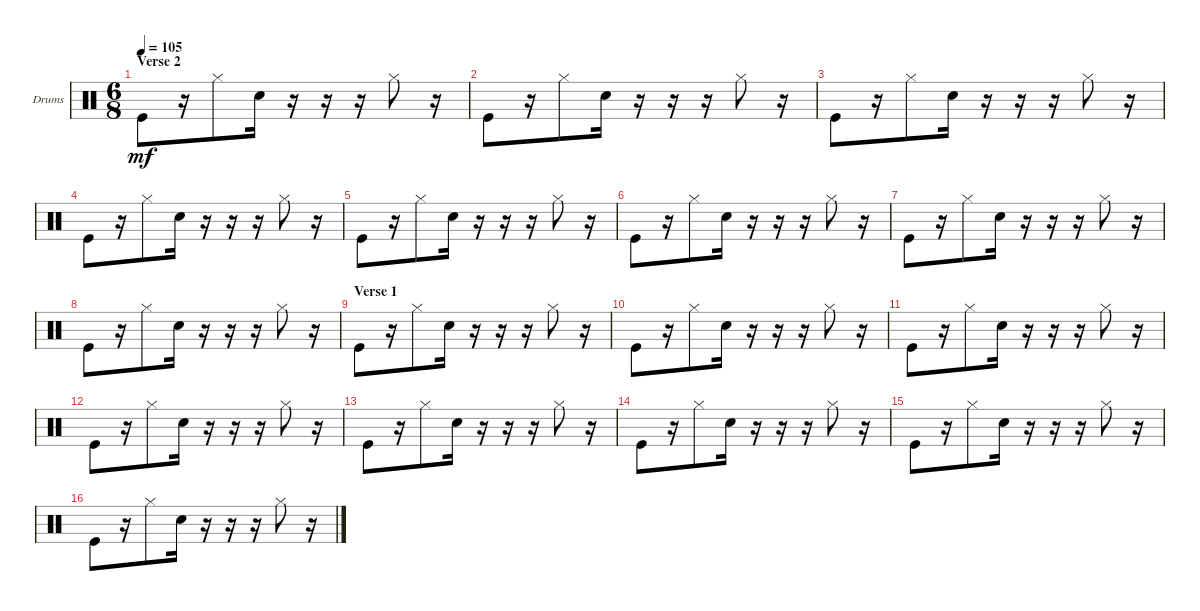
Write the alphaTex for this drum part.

\defaultSystemsLayout 4
\bracketExtendMode nobrackets
\firstSystemTrackNameOrientation horizontal
\otherSystemsTrackNameOrientation horizontal
\track ("Drumkit" "Drums") {instrument percussion}
\staff {score}
\articulation defaults
\ts (6 8)
\section ("" "Verse 2")
\tempo 105
\clef neutral
\ks c "Kick (hit)".8{dy mf}
r.16 "Hi-Hat (closed)".8 "Snare (hit) 2".16 r.16 r.16 r.16 "Hi-Hat (closed)".8 r.16 |
"Kick (hit)".8 r.16 "Hi-Hat (closed)".8 "Snare (hit) 2".16 r.16 r.16 r.16 "Hi-Hat (closed)".8 r.16 |
"Kick (hit)".8 r.16 "Hi-Hat (closed)".8 "Snare (hit) 2".16 r.16 r.16 r.16 "Hi-Hat (closed)".8 r.16 |
"Kick (hit)".8 r.16 "Hi-Hat (closed)".8 "Snare (hit) 2".16 r.16 r.16 r.16 "Hi-Hat (closed)".8 r.16 |
"Kick (hit)".8 r.16 "Hi-Hat (closed)".8 "Snare (hit) 2".16 r.16 r.16 r.16 "Hi-Hat (closed)".8 r.16 |
"Kick (hit)".8 r.16 "Hi-Hat (closed)".8 "Snare (hit) 2".16 r.16 r.16 r.16 "Hi-Hat (closed)".8 r.16 |
"Kick (hit)".8 r.16 "Hi-Hat (closed)".8 "Snare (hit) 2".16 r.16 r.16 r.16 "Hi-Hat (closed)".8 r.16 |
"Kick (hit)".8 r.16 "Hi-Hat (closed)".8 "Snare (hit) 2".16 r.16 r.16 r.16 "Hi-Hat (closed)".8 r.16 |
\section ("" "Verse 1")
"Kick (hit)".8 r.16 "Hi-Hat (closed)".8 "Snare (hit) 2".16 r.16 r.16 r.16 "Hi-Hat (closed)".8 r.16 |
"Kick (hit)".8 r.16 "Hi-Hat (closed)".8 "Snare (hit) 2".16 r.16 r.16 r.16 "Hi-Hat (closed)".8 r.16 |
"Kick (hit)".8 r.16 "Hi-Hat (closed)".8 "Snare (hit) 2".16 r.16 r.16 r.16 "Hi-Hat (closed)".8 r.16 |
"Kick (hit)".8 r.16 "Hi-Hat (closed)".8 "Snare (hit) 2".16 r.16 r.16 r.16 "Hi-Hat (closed)".8 r.16 |
"Kick (hit)".8 r.16 "Hi-Hat (closed)".8 "Snare (hit) 2".16 r.16 r.16 r.16 "Hi-Hat (closed)".8 r.16 |
"Kick (hit)".8 r.16 "Hi-Hat (closed)".8 "Snare (hit) 2".16 r.16 r.16 r.16 "Hi-Hat (closed)".8 r.16 |
"Kick (hit)".8 r.16 "Hi-Hat (closed)".8 "Snare (hit) 2".16 r.16 r.16 r.16 "Hi-Hat (closed)".8 r.16 |
"Kick (hit)".8 r.16 "Hi-Hat (closed)".8 "Snare (hit) 2".16 r.16 r.16 r.16 "Hi-Hat (closed)".8 r.16
